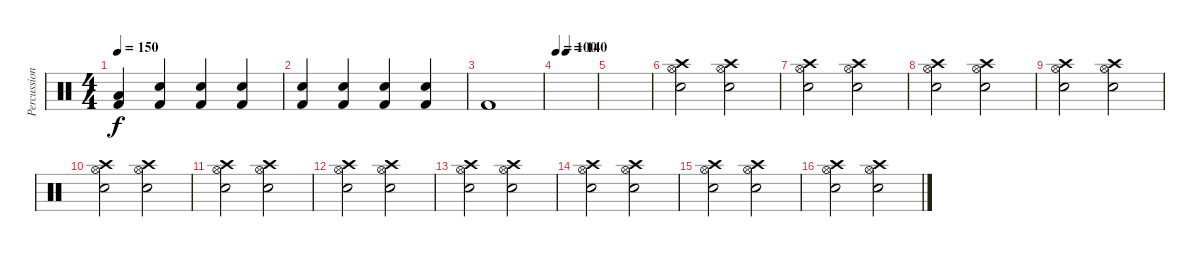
\track ("Percussion" "Percussion") {instrument percussion}
\staff {score}
\articulation defaults
\ts (4 4)
\tempo 150
\clef neutral
\ks c
("Kick (hit) 2" "Low Tom (hit)").4{dy f} ("Kick (hit) 2" "Snare (hit) 2").4 ("Kick (hit) 2" "Snare (hit) 2").4 ("Kick (hit) 2" "Snare (hit) 2").4 |
("Kick (hit) 2" "Snare (hit) 2").4 ("Kick (hit) 2" "Snare (hit) 2").4 ("Kick (hit) 2" "Snare (hit) 2").4 ("Kick (hit) 2" "Snare (hit) 2").4 |
"Kick (hit) 2".1 |
\tempo 100
\tempo (140 0.25)
|
|
("Crash high (hit)" "Snare (hit) 2" "Hi-Hat (open)").2{volume 16} ("Crash high (hit)" "Snare (hit) 2" "Hi-Hat (open)").2 |
("Crash high (hit)" "Snare (hit) 2" "Hi-Hat (open)").2 ("Crash high (hit)" "Snare (hit) 2" "Hi-Hat (open)").2 |
("Crash high (hit)" "Snare (hit) 2" "Hi-Hat (open)").2{volume 16} ("Crash high (hit)" "Snare (hit) 2" "Hi-Hat (open)").2 |
("Crash high (hit)" "Snare (hit) 2" "Hi-Hat (open)").2 ("Crash high (hit)" "Snare (hit) 2" "Hi-Hat (open)").2 |
("Crash high (hit)" "Snare (hit) 2" "Hi-Hat (open)").2{volume 16} ("Crash high (hit)" "Snare (hit) 2" "Hi-Hat (open)").2 |
("Crash high (hit)" "Snare (hit) 2" "Hi-Hat (open)").2 ("Crash high (hit)" "Snare (hit) 2" "Hi-Hat (open)").2 |
("Crash high (hit)" "Snare (hit) 2" "Hi-Hat (open)").2{volume 16} ("Crash high (hit)" "Snare (hit) 2" "Hi-Hat (open)").2 |
("Crash high (hit)" "Snare (hit) 2" "Hi-Hat (open)").2 ("Crash high (hit)" "Snare (hit) 2" "Hi-Hat (open)").2 |
("Crash high (hit)" "Snare (hit) 2" "Hi-Hat (open)").2{volume 16} ("Crash high (hit)" "Snare (hit) 2" "Hi-Hat (open)").2 |
("Crash high (hit)" "Snare (hit) 2" "Hi-Hat (open)").2 ("Crash high (hit)" "Snare (hit) 2" "Hi-Hat (open)").2 |
("Crash high (hit)" "Snare (hit) 2" "Hi-Hat (open)").2{volume 16} ("Crash high (hit)" "Snare (hit) 2" "Hi-Hat (open)").2
